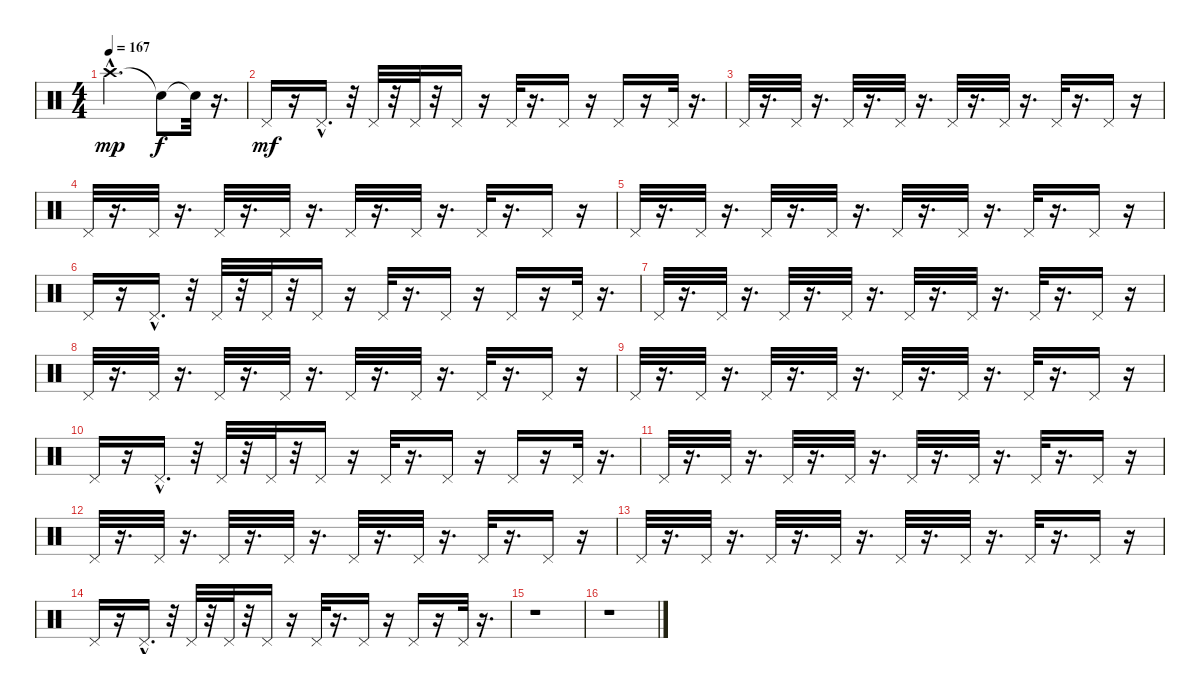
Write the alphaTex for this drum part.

\track "" {instrument percussion}
\staff {score}
\articulation defaults
\ts (4 4)
\tempo 167
\clef neutral
\ks c "Crash high (hit)"{hac}.2{d dy mp} "Snare (hit)"{t}.8{dy f} "Snare (hit)"{t}.32
r.16{d} |
"Pedal Hi-Hat (hit)".16{dy mf} r.16 "Pedal Hi-Hat (hit)"{hac}.16{d} r.32 "Pedal Hi-Hat (hit)".32 r.32 "Pedal Hi-Hat (hit)".32 r.32 "Pedal Hi-Hat (hit)".16 r.16 "Pedal Hi-Hat (hit)".32 r.16{d} "Pedal Hi-Hat (hit)".16 r.16 "Pedal Hi-Hat (hit)".16 r.16 "Pedal Hi-Hat (hit)".32 r.16{d} |
"Pedal Hi-Hat (hit)".32 r.16{d} "Pedal Hi-Hat (hit)".32 r.16{d} "Pedal Hi-Hat (hit)".32 r.16{d} "Pedal Hi-Hat (hit)".32 r.16{d} "Pedal Hi-Hat (hit)".32 r.16{d} "Pedal Hi-Hat (hit)".32 r.16{d} "Pedal Hi-Hat (hit)".32 r.16{d} "Pedal Hi-Hat (hit)".16 r.16 |
"Pedal Hi-Hat (hit)".32 r.16{d} "Pedal Hi-Hat (hit)".32 r.16{d} "Pedal Hi-Hat (hit)".32 r.16{d} "Pedal Hi-Hat (hit)".32 r.16{d} "Pedal Hi-Hat (hit)".32 r.16{d} "Pedal Hi-Hat (hit)".32 r.16{d} "Pedal Hi-Hat (hit)".32 r.16{d} "Pedal Hi-Hat (hit)".16 r.16 |
"Pedal Hi-Hat (hit)".32 r.16{d} "Pedal Hi-Hat (hit)".32 r.16{d} "Pedal Hi-Hat (hit)".32 r.16{d} "Pedal Hi-Hat (hit)".32 r.16{d} "Pedal Hi-Hat (hit)".32 r.16{d} "Pedal Hi-Hat (hit)".32 r.16{d} "Pedal Hi-Hat (hit)".32 r.16{d} "Pedal Hi-Hat (hit)".16 r.16 |
"Pedal Hi-Hat (hit)".16 r.16 "Pedal Hi-Hat (hit)"{hac}.16{d} r.32 "Pedal Hi-Hat (hit)".32 r.32 "Pedal Hi-Hat (hit)".32 r.32 "Pedal Hi-Hat (hit)".16 r.16 "Pedal Hi-Hat (hit)".32 r.16{d} "Pedal Hi-Hat (hit)".16 r.16 "Pedal Hi-Hat (hit)".16 r.16 "Pedal Hi-Hat (hit)".32 r.16{d} |
"Pedal Hi-Hat (hit)".32 r.16{d} "Pedal Hi-Hat (hit)".32 r.16{d} "Pedal Hi-Hat (hit)".32 r.16{d} "Pedal Hi-Hat (hit)".32 r.16{d} "Pedal Hi-Hat (hit)".32 r.16{d} "Pedal Hi-Hat (hit)".32 r.16{d} "Pedal Hi-Hat (hit)".32 r.16{d} "Pedal Hi-Hat (hit)".16 r.16 |
"Pedal Hi-Hat (hit)".32 r.16{d} "Pedal Hi-Hat (hit)".32 r.16{d} "Pedal Hi-Hat (hit)".32 r.16{d} "Pedal Hi-Hat (hit)".32 r.16{d} "Pedal Hi-Hat (hit)".32 r.16{d} "Pedal Hi-Hat (hit)".32 r.16{d} "Pedal Hi-Hat (hit)".32 r.16{d} "Pedal Hi-Hat (hit)".16 r.16 |
"Pedal Hi-Hat (hit)".32 r.16{d} "Pedal Hi-Hat (hit)".32 r.16{d} "Pedal Hi-Hat (hit)".32 r.16{d} "Pedal Hi-Hat (hit)".32 r.16{d} "Pedal Hi-Hat (hit)".32 r.16{d} "Pedal Hi-Hat (hit)".32 r.16{d} "Pedal Hi-Hat (hit)".32 r.16{d} "Pedal Hi-Hat (hit)".16 r.16 |
"Pedal Hi-Hat (hit)".16 r.16 "Pedal Hi-Hat (hit)"{hac}.16{d} r.32 "Pedal Hi-Hat (hit)".32 r.32 "Pedal Hi-Hat (hit)".32 r.32 "Pedal Hi-Hat (hit)".16 r.16 "Pedal Hi-Hat (hit)".32 r.16{d} "Pedal Hi-Hat (hit)".16 r.16 "Pedal Hi-Hat (hit)".16 r.16 "Pedal Hi-Hat (hit)".32 r.16{d} |
"Pedal Hi-Hat (hit)".32 r.16{d} "Pedal Hi-Hat (hit)".32 r.16{d} "Pedal Hi-Hat (hit)".32 r.16{d} "Pedal Hi-Hat (hit)".32 r.16{d} "Pedal Hi-Hat (hit)".32 r.16{d} "Pedal Hi-Hat (hit)".32 r.16{d} "Pedal Hi-Hat (hit)".32 r.16{d} "Pedal Hi-Hat (hit)".16 r.16 |
"Pedal Hi-Hat (hit)".32 r.16{d} "Pedal Hi-Hat (hit)".32 r.16{d} "Pedal Hi-Hat (hit)".32 r.16{d} "Pedal Hi-Hat (hit)".32 r.16{d} "Pedal Hi-Hat (hit)".32 r.16{d} "Pedal Hi-Hat (hit)".32 r.16{d} "Pedal Hi-Hat (hit)".32 r.16{d} "Pedal Hi-Hat (hit)".16 r.16 |
"Pedal Hi-Hat (hit)".32 r.16{d} "Pedal Hi-Hat (hit)".32 r.16{d} "Pedal Hi-Hat (hit)".32 r.16{d} "Pedal Hi-Hat (hit)".32 r.16{d} "Pedal Hi-Hat (hit)".32 r.16{d} "Pedal Hi-Hat (hit)".32 r.16{d} "Pedal Hi-Hat (hit)".32 r.16{d} "Pedal Hi-Hat (hit)".16 r.16 |
"Pedal Hi-Hat (hit)".16 r.16 "Pedal Hi-Hat (hit)"{hac}.16{d} r.32 "Pedal Hi-Hat (hit)".32 r.32 "Pedal Hi-Hat (hit)".32 r.32 "Pedal Hi-Hat (hit)".16 r.16 "Pedal Hi-Hat (hit)".32 r.16{d} "Pedal Hi-Hat (hit)".16 r.16 "Pedal Hi-Hat (hit)".16 r.16 "Pedal Hi-Hat (hit)".32 r.16{d} |
r.1 |
r.1
